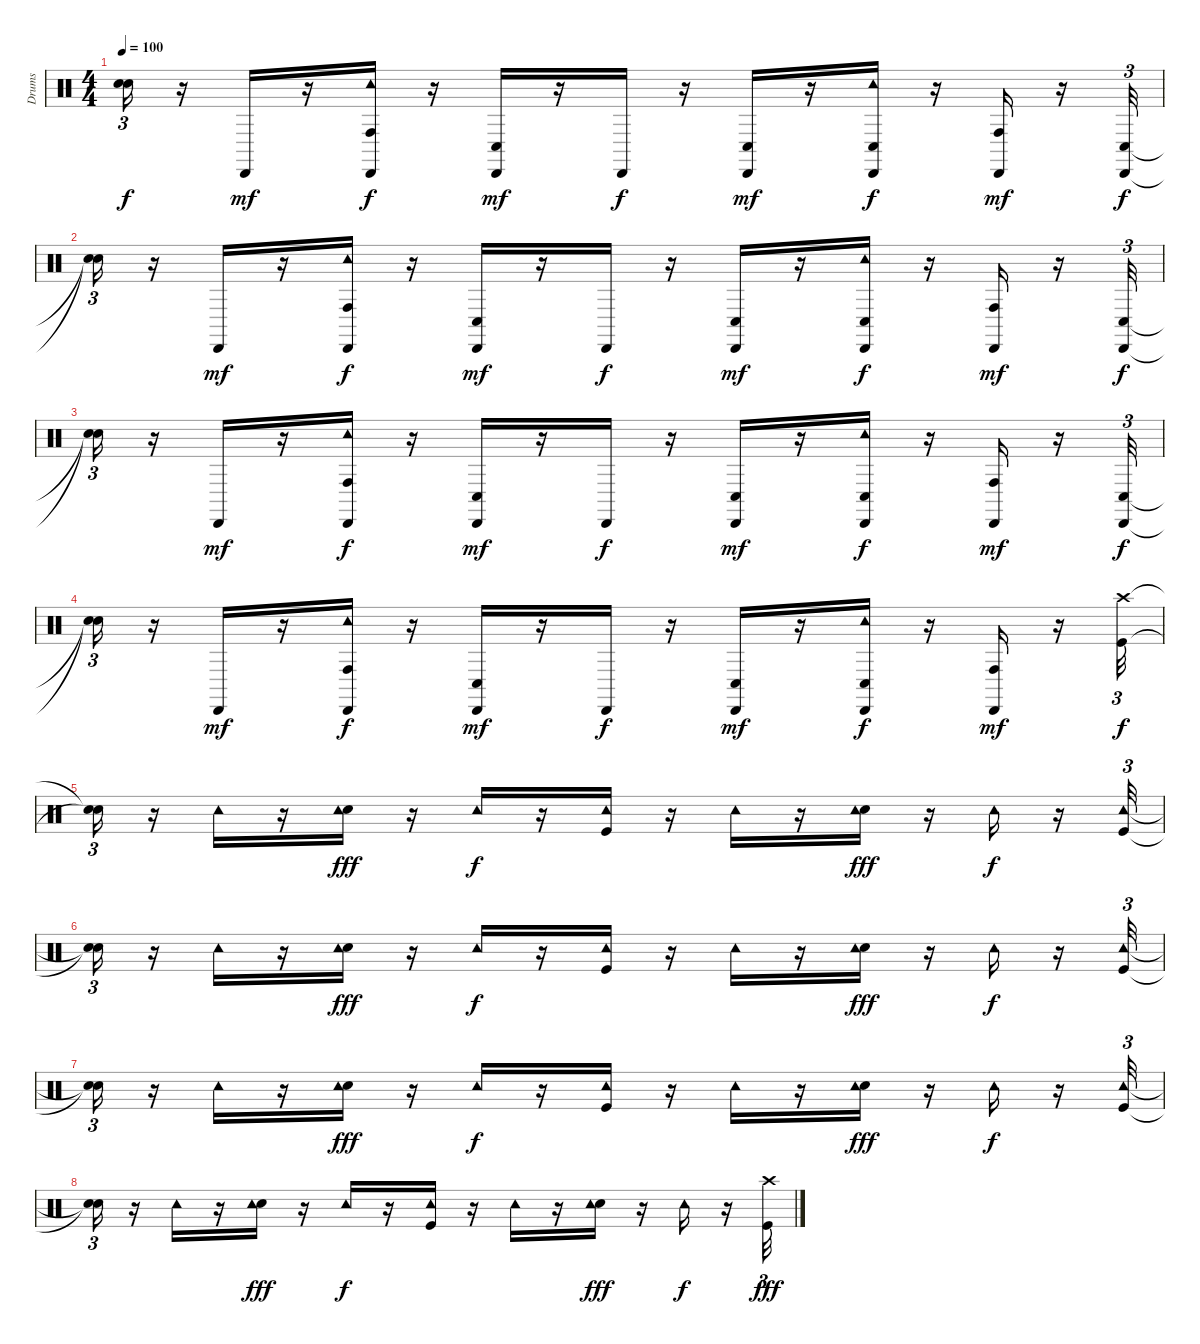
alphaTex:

\track ("Drums" "Drums") {instrument percussion}
\staff {score}
\articulation defaults
\ts (4 4)
\tempo 100
\clef neutral
\ks c
("Snare (hit)"{t} "Snare (hit)"{t}).16{tu (3 2) dy f} r.16 "Cabasa (hit)".16{dy mf} r.16 ("Tambourine (hit)" "Conga high (hit)" "Cabasa (hit)").16{dy f} r.16 ("Conga low (hit)" "Cabasa (hit)").16{dy mf} r.16 "Cabasa (hit)".16{dy f} r.16 ("Conga low (hit)" "Cabasa (hit)").16{dy mf} r.16 ("Tambourine (hit)" "Conga low (hit)" "Cabasa (hit)").16{dy f} r.16 ("Conga high (hit)" "Cabasa (hit)").16{dy mf} r.16 ("Conga low (hit)" "Cabasa (hit)").32{tu (3 2) dy f} |
("Snare (hit)"{t} "Snare (hit)"{t}).16{tu (3 2)} r.16 "Cabasa (hit)".16{dy mf} r.16 ("Tambourine (hit)" "Conga high (hit)" "Cabasa (hit)").16{dy f} r.16 ("Conga low (hit)" "Cabasa (hit)").16{dy mf} r.16 "Cabasa (hit)".16{dy f} r.16 ("Conga low (hit)" "Cabasa (hit)").16{dy mf} r.16 ("Tambourine (hit)" "Conga low (hit)" "Cabasa (hit)").16{dy f} r.16 ("Conga high (hit)" "Cabasa (hit)").16{dy mf} r.16 ("Conga low (hit)" "Cabasa (hit)").32{tu (3 2) dy f} |
("Snare (hit)"{t} "Snare (hit)"{t}).16{tu (3 2)} r.16 "Cabasa (hit)".16{dy mf} r.16 ("Tambourine (hit)" "Conga high (hit)" "Cabasa (hit)").16{dy f} r.16 ("Conga low (hit)" "Cabasa (hit)").16{dy mf} r.16 "Cabasa (hit)".16{dy f} r.16 ("Conga low (hit)" "Cabasa (hit)").16{dy mf} r.16 ("Tambourine (hit)" "Conga low (hit)" "Cabasa (hit)").16{dy f} r.16 ("Conga high (hit)" "Cabasa (hit)").16{dy mf} r.16 ("Conga low (hit)" "Cabasa (hit)").32{tu (3 2) dy f} |
("Snare (hit)"{t} "Snare (hit)"{t}).16{tu (3 2)} r.16 "Cabasa (hit)".16{dy mf} r.16 ("Tambourine (hit)" "Conga high (hit)" "Cabasa (hit)").16{dy f} r.16 ("Conga low (hit)" "Cabasa (hit)").16{dy mf} r.16 "Cabasa (hit)".16{dy f} r.16 ("Conga low (hit)" "Cabasa (hit)").16{dy mf} r.16 ("Tambourine (hit)" "Conga low (hit)" "Cabasa (hit)").16{dy f} r.16 ("Conga high (hit)" "Cabasa (hit)").16{dy mf} r.16 ("Kick (hit)" "Crash high (hit)").32{tu (3 2) dy f} |
("Snare (hit)"{t} "Snare (hit)"{t}).16{tu (3 2)} r.16 "Tambourine (hit)".16 r.16 ("Snare (hit) 2" "Tambourine (hit)").16{dy fff} r.16 "Tambourine (hit)".16{dy f} r.16 ("Kick (hit)" "Tambourine (hit)").16 r.16 "Tambourine (hit)".16 r.16 ("Snare (hit) 2" "Tambourine (hit)").16{dy fff} r.16 "Tambourine (hit)".16{dy f} r.16 ("Kick (hit)" "Tambourine (hit)").32{tu (3 2)} |
("Snare (hit)"{t} "Snare (hit)"{t}).16{tu (3 2)} r.16 "Tambourine (hit)".16 r.16 ("Snare (hit) 2" "Tambourine (hit)").16{dy fff} r.16 "Tambourine (hit)".16{dy f} r.16 ("Kick (hit)" "Tambourine (hit)").16 r.16 "Tambourine (hit)".16 r.16 ("Snare (hit) 2" "Tambourine (hit)").16{dy fff} r.16 "Tambourine (hit)".16{dy f} r.16 ("Kick (hit)" "Tambourine (hit)").32{tu (3 2)} |
("Snare (hit)"{t} "Snare (hit)"{t}).16{tu (3 2)} r.16 "Tambourine (hit)".16 r.16 ("Snare (hit) 2" "Tambourine (hit)").16{dy fff} r.16 "Tambourine (hit)".16{dy f} r.16 ("Kick (hit)" "Tambourine (hit)").16 r.16 "Tambourine (hit)".16 r.16 ("Snare (hit) 2" "Tambourine (hit)").16{dy fff} r.16 "Tambourine (hit)".16{dy f} r.16 ("Kick (hit)" "Tambourine (hit)").32{tu (3 2)} |
("Snare (hit)"{t} "Snare (hit)"{t}).16{tu (3 2)} r.16 "Tambourine (hit)".16 r.16 ("Snare (hit) 2" "Tambourine (hit)").16{dy fff} r.16 "Tambourine (hit)".16{dy f} r.16 ("Kick (hit)" "Tambourine (hit)").16 r.16 "Tambourine (hit)".16 r.16 ("Snare (hit) 2" "Tambourine (hit)").16{dy fff} r.16 "Tambourine (hit)".16{dy f} r.16 ("Kick (hit)" "Crash high (hit)").32{tu (3 2) dy fff}
